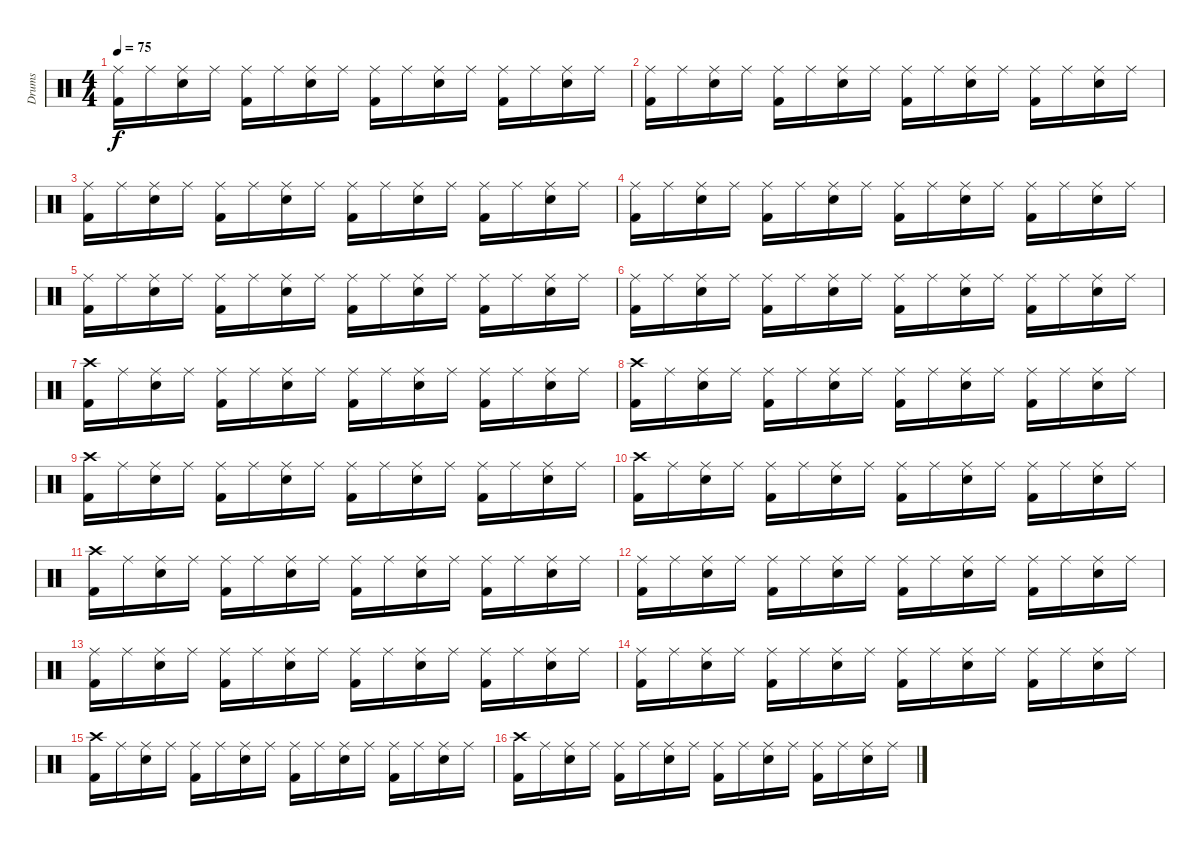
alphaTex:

\track ("Drums" "Drums") {instrument percussion}
\staff {score}
\articulation defaults
\ts (4 4)
\tempo 75
\clef neutral
\ks c
("Ride (middle)" "Kick (hit) 2").16{dy f} "Ride (middle)".16 ("Ride (middle)" "Electric Snare (hit)").16 "Ride (middle)".16 ("Ride (middle)" "Kick (hit) 2").16 "Ride (middle)".16 ("Ride (middle)" "Electric Snare (hit)").16 "Ride (middle)".16 ("Ride (middle)" "Kick (hit) 2").16 "Ride (middle)".16 ("Ride (middle)" "Electric Snare (hit)").16 "Ride (middle)".16 ("Ride (middle)" "Kick (hit) 2").16 "Ride (middle)".16 ("Ride (middle)" "Electric Snare (hit)").16 "Ride (middle)".16 |
("Ride (middle)" "Kick (hit) 2").16 "Ride (middle)".16 ("Ride (middle)" "Electric Snare (hit)").16 "Ride (middle)".16 ("Ride (middle)" "Kick (hit) 2").16 "Ride (middle)".16 ("Ride (middle)" "Electric Snare (hit)").16 "Ride (middle)".16 ("Ride (middle)" "Kick (hit) 2").16 "Ride (middle)".16 ("Ride (middle)" "Electric Snare (hit)").16 "Ride (middle)".16 ("Ride (middle)" "Kick (hit) 2").16 "Ride (middle)".16 ("Ride (middle)" "Electric Snare (hit)").16 "Ride (middle)".16 |
("Ride (middle)" "Kick (hit) 2").16 "Ride (middle)".16 ("Ride (middle)" "Electric Snare (hit)").16 "Ride (middle)".16 ("Ride (middle)" "Kick (hit) 2").16 "Ride (middle)".16 ("Ride (middle)" "Electric Snare (hit)").16 "Ride (middle)".16 ("Ride (middle)" "Kick (hit) 2").16 "Ride (middle)".16 ("Ride (middle)" "Electric Snare (hit)").16 "Ride (middle)".16 ("Ride (middle)" "Kick (hit) 2").16 "Ride (middle)".16 ("Ride (middle)" "Electric Snare (hit)").16 "Ride (middle)".16 |
("Ride (middle)" "Kick (hit) 2").16 "Ride (middle)".16 ("Ride (middle)" "Electric Snare (hit)").16 "Ride (middle)".16 ("Ride (middle)" "Kick (hit) 2").16 "Ride (middle)".16 ("Ride (middle)" "Electric Snare (hit)").16 "Ride (middle)".16 ("Ride (middle)" "Kick (hit) 2").16 "Ride (middle)".16 ("Ride (middle)" "Electric Snare (hit)").16 "Ride (middle)".16 ("Ride (middle)" "Kick (hit) 2").16 "Ride (middle)".16 ("Ride (middle)" "Electric Snare (hit)").16 "Ride (middle)".16 |
("Ride (middle)" "Kick (hit) 2").16 "Ride (middle)".16 ("Ride (middle)" "Electric Snare (hit)").16 "Ride (middle)".16 ("Ride (middle)" "Kick (hit) 2").16 "Ride (middle)".16 ("Ride (middle)" "Electric Snare (hit)").16 "Ride (middle)".16 ("Ride (middle)" "Kick (hit) 2").16 "Ride (middle)".16 ("Ride (middle)" "Electric Snare (hit)").16 "Ride (middle)".16 ("Ride (middle)" "Kick (hit) 2").16 "Ride (middle)".16 ("Ride (middle)" "Electric Snare (hit)").16 "Ride (middle)".16 |
("Ride (middle)" "Kick (hit) 2").16 "Ride (middle)".16 ("Ride (middle)" "Electric Snare (hit)").16 "Ride (middle)".16 ("Ride (middle)" "Kick (hit) 2").16 "Ride (middle)".16 ("Ride (middle)" "Electric Snare (hit)").16 "Ride (middle)".16 ("Ride (middle)" "Kick (hit) 2").16 "Ride (middle)".16 ("Ride (middle)" "Electric Snare (hit)").16 "Ride (middle)".16 ("Ride (middle)" "Kick (hit) 2").16 "Ride (middle)".16 ("Ride (middle)" "Electric Snare (hit)").16 "Ride (middle)".16 |
("Crash high (hit)" "Kick (hit) 2").16 "Ride (middle)".16 ("Ride (middle)" "Electric Snare (hit)").16 "Ride (middle)".16 ("Ride (middle)" "Kick (hit) 2").16 "Ride (middle)".16 ("Ride (middle)" "Electric Snare (hit)").16 "Ride (middle)".16 ("Ride (middle)" "Kick (hit) 2").16 "Ride (middle)".16 ("Ride (middle)" "Electric Snare (hit)").16 "Ride (middle)".16 ("Ride (middle)" "Kick (hit) 2").16 "Ride (middle)".16 ("Ride (middle)" "Electric Snare (hit)").16 "Ride (middle)".16 |
("Crash high (hit)" "Kick (hit) 2").16 "Ride (middle)".16 ("Ride (middle)" "Electric Snare (hit)").16 "Ride (middle)".16 ("Ride (middle)" "Kick (hit) 2").16 "Ride (middle)".16 ("Ride (middle)" "Electric Snare (hit)").16 "Ride (middle)".16 ("Ride (middle)" "Kick (hit) 2").16 "Ride (middle)".16 ("Ride (middle)" "Electric Snare (hit)").16 "Ride (middle)".16 ("Ride (middle)" "Kick (hit) 2").16 "Ride (middle)".16 ("Ride (middle)" "Electric Snare (hit)").16 "Ride (middle)".16 |
("Crash high (hit)" "Kick (hit) 2").16 "Ride (middle)".16 ("Ride (middle)" "Electric Snare (hit)").16 "Ride (middle)".16 ("Ride (middle)" "Kick (hit) 2").16 "Ride (middle)".16 ("Ride (middle)" "Electric Snare (hit)").16 "Ride (middle)".16 ("Ride (middle)" "Kick (hit) 2").16 "Ride (middle)".16 ("Ride (middle)" "Electric Snare (hit)").16 "Ride (middle)".16 ("Ride (middle)" "Kick (hit) 2").16 "Ride (middle)".16 ("Ride (middle)" "Electric Snare (hit)").16 "Ride (middle)".16 |
("Crash high (hit)" "Kick (hit) 2").16 "Ride (middle)".16 ("Ride (middle)" "Electric Snare (hit)").16 "Ride (middle)".16 ("Ride (middle)" "Kick (hit) 2").16 "Ride (middle)".16 ("Ride (middle)" "Electric Snare (hit)").16 "Ride (middle)".16 ("Ride (middle)" "Kick (hit) 2").16 "Ride (middle)".16 ("Ride (middle)" "Electric Snare (hit)").16 "Ride (middle)".16 ("Ride (middle)" "Kick (hit) 2").16 "Ride (middle)".16 ("Ride (middle)" "Electric Snare (hit)").16 "Ride (middle)".16 |
("Crash high (hit)" "Kick (hit) 2").16 "Ride (middle)".16 ("Ride (middle)" "Electric Snare (hit)").16 "Ride (middle)".16 ("Ride (middle)" "Kick (hit) 2").16 "Ride (middle)".16 ("Ride (middle)" "Electric Snare (hit)").16 "Ride (middle)".16 ("Ride (middle)" "Kick (hit) 2").16 "Ride (middle)".16 ("Ride (middle)" "Electric Snare (hit)").16 "Ride (middle)".16 ("Ride (middle)" "Kick (hit) 2").16 "Ride (middle)".16 ("Ride (middle)" "Electric Snare (hit)").16 "Ride (middle)".16 |
("Ride (middle)" "Kick (hit) 2").16 "Ride (middle)".16 ("Ride (middle)" "Electric Snare (hit)").16 "Ride (middle)".16 ("Ride (middle)" "Kick (hit) 2").16 "Ride (middle)".16 ("Ride (middle)" "Electric Snare (hit)").16 "Ride (middle)".16 ("Ride (middle)" "Kick (hit) 2").16 "Ride (middle)".16 ("Ride (middle)" "Electric Snare (hit)").16 "Ride (middle)".16 ("Ride (middle)" "Kick (hit) 2").16 "Ride (middle)".16 ("Ride (middle)" "Electric Snare (hit)").16 "Ride (middle)".16 |
("Ride (middle)" "Kick (hit) 2").16 "Ride (middle)".16 ("Ride (middle)" "Electric Snare (hit)").16 "Ride (middle)".16 ("Ride (middle)" "Kick (hit) 2").16 "Ride (middle)".16 ("Ride (middle)" "Electric Snare (hit)").16 "Ride (middle)".16 ("Ride (middle)" "Kick (hit) 2").16 "Ride (middle)".16 ("Ride (middle)" "Electric Snare (hit)").16 "Ride (middle)".16 ("Ride (middle)" "Kick (hit) 2").16 "Ride (middle)".16 ("Ride (middle)" "Electric Snare (hit)").16 "Ride (middle)".16 |
("Ride (middle)" "Kick (hit) 2").16 "Ride (middle)".16 ("Ride (middle)" "Electric Snare (hit)").16 "Ride (middle)".16 ("Ride (middle)" "Kick (hit) 2").16 "Ride (middle)".16 ("Ride (middle)" "Electric Snare (hit)").16 "Ride (middle)".16 ("Ride (middle)" "Kick (hit) 2").16 "Ride (middle)".16 ("Ride (middle)" "Electric Snare (hit)").16 "Ride (middle)".16 ("Ride (middle)" "Kick (hit) 2").16 "Ride (middle)".16 ("Ride (middle)" "Electric Snare (hit)").16 "Ride (middle)".16 |
("Crash high (hit)" "Kick (hit) 2").16 "Ride (middle)".16 ("Ride (middle)" "Electric Snare (hit)").16 "Ride (middle)".16 ("Ride (middle)" "Kick (hit) 2").16 "Ride (middle)".16 ("Ride (middle)" "Electric Snare (hit)").16 "Ride (middle)".16 ("Ride (middle)" "Kick (hit) 2").16 "Ride (middle)".16 ("Ride (middle)" "Electric Snare (hit)").16 "Ride (middle)".16 ("Ride (middle)" "Kick (hit) 2").16 "Ride (middle)".16 ("Ride (middle)" "Electric Snare (hit)").16 "Ride (middle)".16 |
("Crash high (hit)" "Kick (hit) 2").16 "Ride (middle)".16 ("Ride (middle)" "Electric Snare (hit)").16 "Ride (middle)".16 ("Ride (middle)" "Kick (hit) 2").16 "Ride (middle)".16 ("Ride (middle)" "Electric Snare (hit)").16 "Ride (middle)".16 ("Ride (middle)" "Kick (hit) 2").16 "Ride (middle)".16 ("Ride (middle)" "Electric Snare (hit)").16 "Ride (middle)".16 ("Ride (middle)" "Kick (hit) 2").16 "Ride (middle)".16 ("Ride (middle)" "Electric Snare (hit)").16 "Ride (middle)".16
